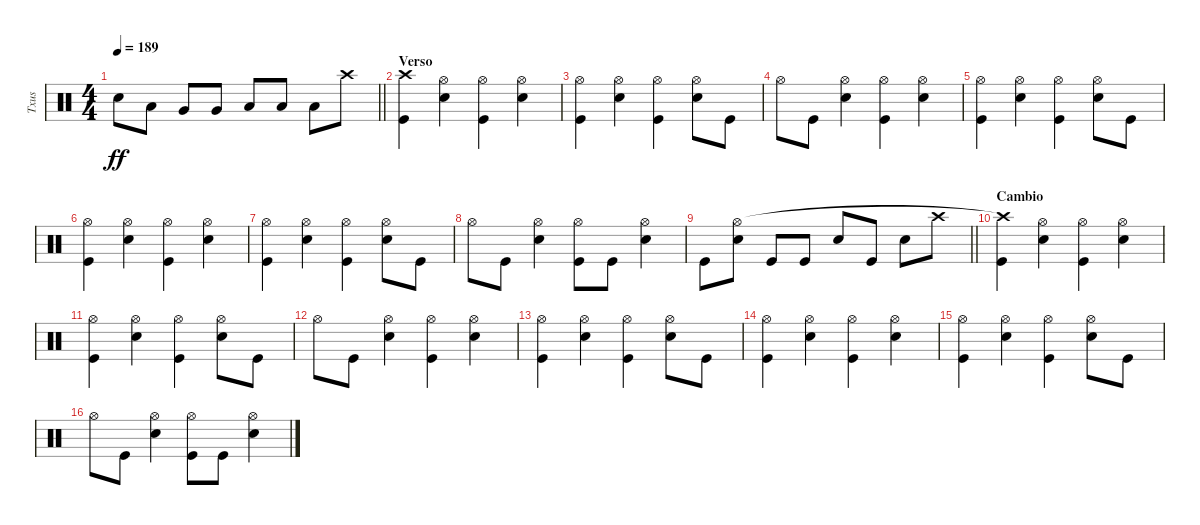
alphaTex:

\track ("Txus" "Txus") {instrument percussion}
\staff {score}
\articulation defaults
\ts (4 4)
\tempo 189
\clef neutral
\barLineRight lightlight
\ks c "Snare (hit) 2"{t}.8{dy ff} "Low Tom (hit)".8 "Very Low Tom (hit)".8 "Very Low Tom (hit)".8 "Low Floor Tom (hit)".8 "Low Floor Tom (hit)".8 "Low Floor Tom (hit)".8 "Crash high (hit)".8
|
\section ("" "Verso")
("Kick (hit)" "Crash high (hit)"{t}).4 ("Hi-Hat (open)" "Snare (hit) 2").4 ("Hi-Hat (open)" "Kick (hit)").4 ("Hi-Hat (open)" "Snare (hit) 2").4 |
("Kick (hit)" "Hi-Hat (open)").4 ("Hi-Hat (open)" "Snare (hit) 2").4 ("Hi-Hat (open)" "Kick (hit)").4 ("Hi-Hat (open)" "Snare (hit) 2").8 "Kick (hit)".8 |
"Hi-Hat (open)".8 "Kick (hit)".8 ("Hi-Hat (open)" "Snare (hit) 2").4 ("Hi-Hat (open)" "Kick (hit)").4 ("Hi-Hat (open)" "Snare (hit) 2").4 |
("Kick (hit)" "Hi-Hat (open)").4 ("Hi-Hat (open)" "Snare (hit) 2").4 ("Hi-Hat (open)" "Kick (hit)").4 ("Hi-Hat (open)" "Snare (hit) 2").8 "Kick (hit)".8 |
("Kick (hit)" "Hi-Hat (open)").4 ("Hi-Hat (open)" "Snare (hit) 2").4 ("Hi-Hat (open)" "Kick (hit)").4 ("Hi-Hat (open)" "Snare (hit) 2").4 |
("Kick (hit)" "Hi-Hat (open)").4 ("Hi-Hat (open)" "Snare (hit) 2").4 ("Hi-Hat (open)" "Kick (hit)").4 ("Hi-Hat (open)" "Snare (hit) 2").8 "Kick (hit)".8 |
"Hi-Hat (open)".8 "Kick (hit)".8 ("Hi-Hat (open)" "Snare (hit) 2").4 ("Hi-Hat (open)" "Kick (hit)").8 "Kick (hit)".8 ("Hi-Hat (open)" "Snare (hit) 2").4 |
\barLineRight lightlight "Kick (hit)".8
("Snare (hit) 2" "Hi-Hat (open)").8 "Kick (hit)".8 "Kick (hit)".8 "Snare (hit) 2".8 "Kick (hit)".8 "Snare (hit) 2".8 "Crash high (hit)".8 |
\section ("" "Cambio")
("Kick (hit)" "Crash high (hit)"{t}).4 ("Hi-Hat (open)" "Snare (hit) 2").4 ("Hi-Hat (open)" "Kick (hit)").4 ("Hi-Hat (open)" "Snare (hit) 2").4 |
("Kick (hit)" "Hi-Hat (open)").4 ("Hi-Hat (open)" "Snare (hit) 2").4 ("Hi-Hat (open)" "Kick (hit)").4 ("Hi-Hat (open)" "Snare (hit) 2").8 "Kick (hit)".8 |
"Hi-Hat (open)".8 "Kick (hit)".8 ("Hi-Hat (open)" "Snare (hit) 2").4 ("Hi-Hat (open)" "Kick (hit)").4 ("Hi-Hat (open)" "Snare (hit) 2").4 |
("Kick (hit)" "Hi-Hat (open)").4 ("Hi-Hat (open)" "Snare (hit) 2").4 ("Hi-Hat (open)" "Kick (hit)").4 ("Hi-Hat (open)" "Snare (hit) 2").8 "Kick (hit)".8 |
("Kick (hit)" "Hi-Hat (open)").4 ("Hi-Hat (open)" "Snare (hit) 2").4 ("Hi-Hat (open)" "Kick (hit)").4 ("Hi-Hat (open)" "Snare (hit) 2").4 |
("Kick (hit)" "Hi-Hat (open)").4 ("Hi-Hat (open)" "Snare (hit) 2").4 ("Hi-Hat (open)" "Kick (hit)").4 ("Hi-Hat (open)" "Snare (hit) 2").8 "Kick (hit)".8 |
"Hi-Hat (open)".8 "Kick (hit)".8 ("Hi-Hat (open)" "Snare (hit) 2").4 ("Hi-Hat (open)" "Kick (hit)").8 "Kick (hit)".8 ("Hi-Hat (open)" "Snare (hit) 2").4
